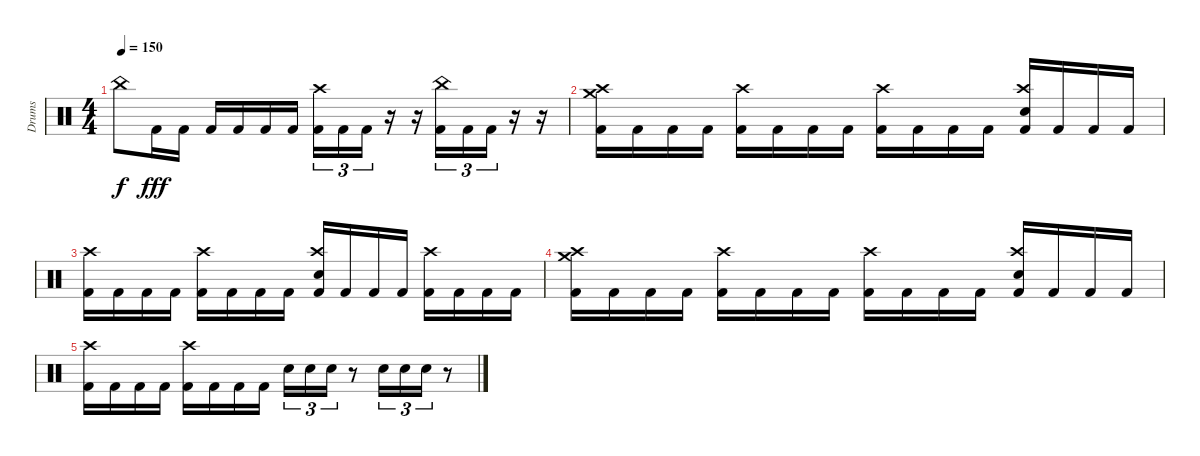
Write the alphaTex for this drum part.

\track ("Drums" "Drums") {instrument percussion}
\staff {score}
\articulation defaults
\ts (4 4)
\tempo 150
\clef neutral
\ks c "China (hit)".8{dy f} "Kick (hit) 2".16{dy fff} "Kick (hit) 2".16 "Kick (hit) 2".16 "Kick (hit) 2".16 "Kick (hit) 2".16 "Kick (hit) 2".16
("Crash high (hit)" "Kick (hit) 2").16{tu (3 2)} "Kick (hit) 2".16{tu (3 2)} "Kick (hit) 2".16{tu (3 2)} r.16 r.16{volume 0} ("China (hit)" "Kick (hit) 2").16{tu (3 2) volume 12} "Kick (hit) 2".16{tu (3 2)} "Kick (hit) 2".16{tu (3 2)} r.16 r.16{volume 0} |
("Crash high (hit)" "Crash medium (hit)" "Kick (hit) 2").16{volume 12 balance 8} "Kick (hit) 2".16 "Kick (hit) 2".16 "Kick (hit) 2".16 ("Crash high (hit)" "Kick (hit) 2").16 "Kick (hit) 2".16 "Kick (hit) 2".16 "Kick (hit) 2".16 ("Crash high (hit)" "Kick (hit) 2").16 "Kick (hit) 2".16 "Kick (hit) 2".16 "Kick (hit) 2".16 ("Crash high (hit)" "Electric Snare (hit)" "Kick (hit) 2").16 "Kick (hit) 2".16 "Kick (hit) 2".16 "Kick (hit) 2".16 |
("Crash high (hit)" "Kick (hit) 2").16 "Kick (hit) 2".16 "Kick (hit) 2".16 "Kick (hit) 2".16 ("Crash high (hit)" "Kick (hit) 2").16 "Kick (hit) 2".16 "Kick (hit) 2".16 "Kick (hit) 2".16 ("Crash high (hit)" "Electric Snare (hit)" "Kick (hit) 2").16 "Kick (hit) 2".16 "Kick (hit) 2".16 "Kick (hit) 2".16 ("Crash high (hit)" "Kick (hit) 2").16 "Kick (hit) 2".16 "Kick (hit) 2".16 "Kick (hit) 2".16 |
("Crash high (hit)" "Crash medium (hit)" "Kick (hit) 2").16 "Kick (hit) 2".16 "Kick (hit) 2".16 "Kick (hit) 2".16 ("Crash high (hit)" "Kick (hit) 2").16 "Kick (hit) 2".16 "Kick (hit) 2".16 "Kick (hit) 2".16 ("Crash high (hit)" "Kick (hit) 2").16 "Kick (hit) 2".16 "Kick (hit) 2".16 "Kick (hit) 2".16 ("Crash high (hit)" "Electric Snare (hit)" "Kick (hit) 2").16 "Kick (hit) 2".16 "Kick (hit) 2".16 "Kick (hit) 2".16 |
("Crash high (hit)" "Kick (hit) 2").16 "Kick (hit) 2".16 "Kick (hit) 2".16 "Kick (hit) 2".16 ("Crash high (hit)" "Kick (hit) 2").16 "Kick (hit) 2".16 "Kick (hit) 2".16 "Kick (hit) 2".16 "Electric Snare (hit)".16{tu (3 2)} "Electric Snare (hit)".16{tu (3 2)} "Electric Snare (hit)".16{tu (3 2)} r.8 "Electric Snare (hit)".16{tu (3 2)} "Electric Snare (hit)".16{tu (3 2)} "Electric Snare (hit)".16{tu (3 2)} r.8
